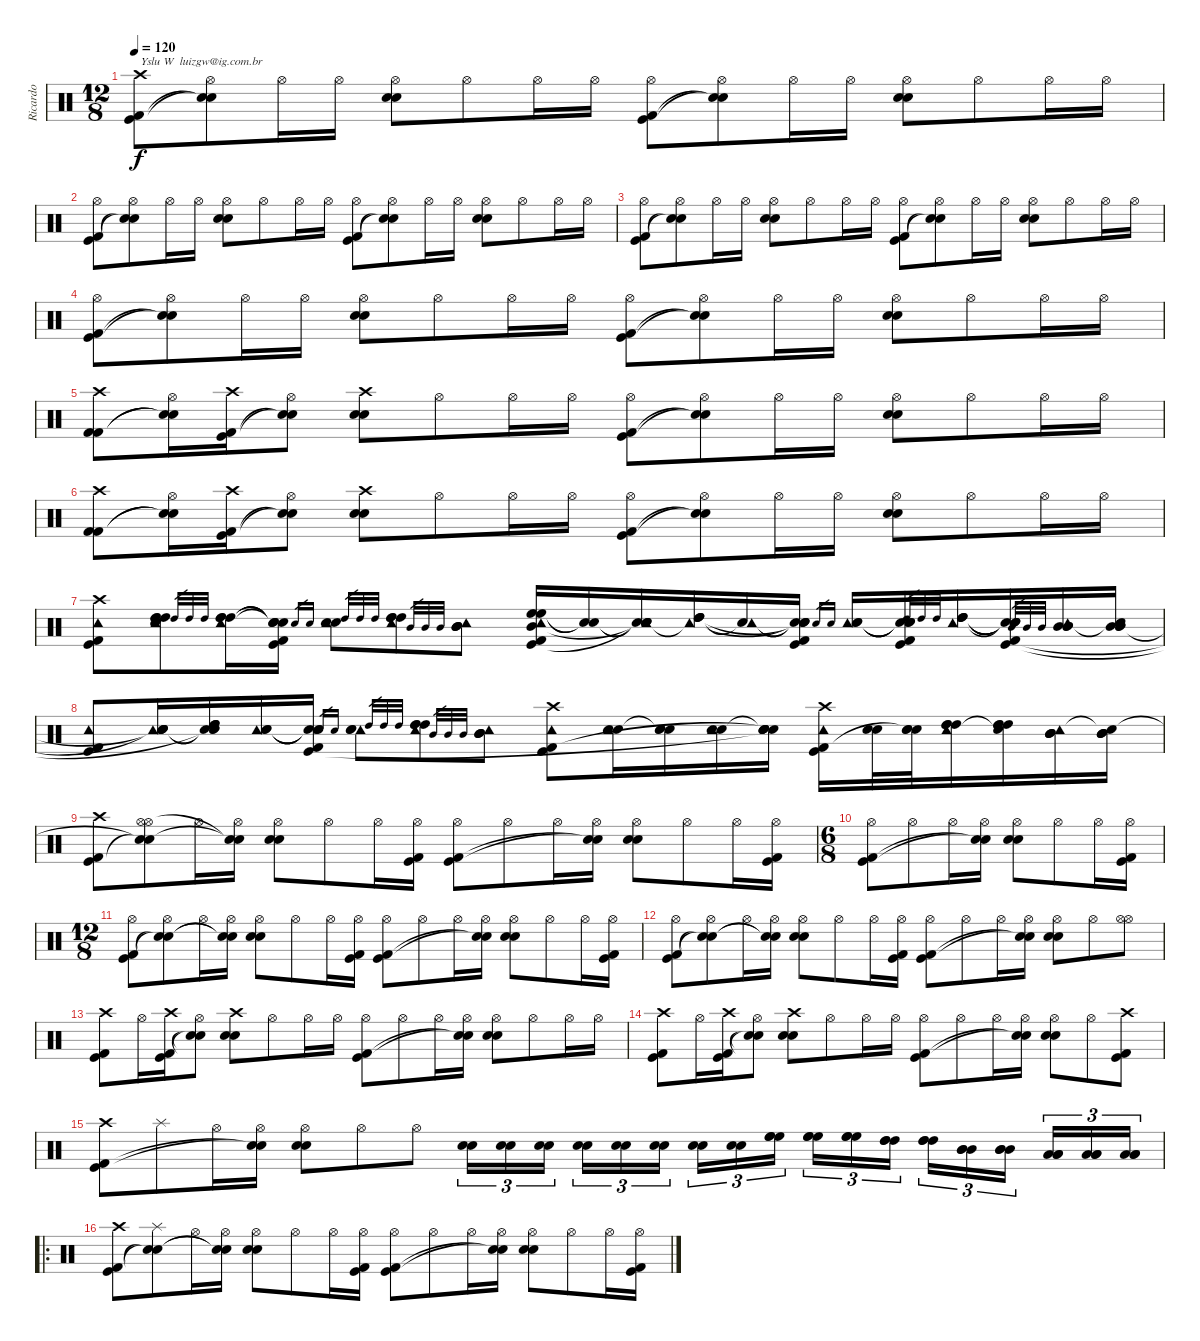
\track ("Ricardo" "Ricardo") {instrument percussion}
\staff {score}
\articulation defaults
\ts (12 8)
\tempo 120
\clef neutral
\ks c
("Crash high (hit)" "Kick (hit)" "Kick (hit) 2").8{txt "Yslu W  luizgw@ig.com.br" dy f} ("Hi-Hat (open)" "Snare (hit)"{t} "Snare (hit)"{t}).8 "Hi-Hat (open)".16 "Hi-Hat (open)".16 ("Hi-Hat (open)" "Electric Snare (hit)" "Snare (hit) 2").8 "Hi-Hat (open)".8 "Hi-Hat (open)".16 "Hi-Hat (open)".16 ("Hi-Hat (open)" "Kick (hit)" "Kick (hit) 2").8 ("Hi-Hat (open)" "Snare (hit)"{t} "Snare (hit)"{t}).8 "Hi-Hat (open)".16 "Hi-Hat (open)".16 ("Hi-Hat (open)" "Electric Snare (hit)" "Snare (hit) 2").8 "Hi-Hat (open)".8 "Hi-Hat (open)".16 "Hi-Hat (open)".16 |
("Hi-Hat (open)" "Kick (hit)" "Kick (hit) 2").8 ("Hi-Hat (open)" "Snare (hit)"{t} "Snare (hit)"{t}).8 "Hi-Hat (open)".16 "Hi-Hat (open)".16 ("Hi-Hat (open)" "Electric Snare (hit)" "Snare (hit) 2").8 "Hi-Hat (open)".8 "Hi-Hat (open)".16 "Hi-Hat (open)".16 ("Hi-Hat (open)" "Kick (hit)" "Kick (hit) 2").8 ("Hi-Hat (open)" "Snare (hit)"{t} "Snare (hit)"{t}).8 "Hi-Hat (open)".16 "Hi-Hat (open)".16 ("Hi-Hat (open)" "Electric Snare (hit)" "Snare (hit) 2").8 "Hi-Hat (open)".8 "Hi-Hat (open)".16 "Hi-Hat (open)".16 |
("Hi-Hat (open)" "Kick (hit)" "Kick (hit) 2").8 ("Hi-Hat (open)" "Snare (hit)"{t} "Snare (hit)"{t}).8 "Hi-Hat (open)".16 "Hi-Hat (open)".16 ("Hi-Hat (open)" "Electric Snare (hit)" "Snare (hit) 2").8 "Hi-Hat (open)".8 "Hi-Hat (open)".16 "Hi-Hat (open)".16 ("Hi-Hat (open)" "Kick (hit)" "Kick (hit) 2").8 ("Hi-Hat (open)" "Snare (hit)"{t} "Snare (hit)"{t}).8 "Hi-Hat (open)".16 "Hi-Hat (open)".16 ("Hi-Hat (open)" "Electric Snare (hit)" "Snare (hit) 2").8 "Hi-Hat (open)".8 "Hi-Hat (open)".16 "Hi-Hat (open)".16 |
("Hi-Hat (open)" "Kick (hit)" "Kick (hit) 2").8 ("Hi-Hat (open)" "Snare (hit)"{t} "Snare (hit)"{t}).8 "Hi-Hat (open)".16 "Hi-Hat (open)".16 ("Hi-Hat (open)" "Electric Snare (hit)" "Snare (hit) 2").8 "Hi-Hat (open)".8 "Hi-Hat (open)".16 "Hi-Hat (open)".16 ("Hi-Hat (open)" "Kick (hit)" "Kick (hit) 2").8 ("Hi-Hat (open)" "Snare (hit)"{t} "Snare (hit)"{t}).8 "Hi-Hat (open)".16 "Hi-Hat (open)".16 ("Hi-Hat (open)" "Electric Snare (hit)" "Snare (hit) 2").8 "Hi-Hat (open)".8 "Hi-Hat (open)".16 "Hi-Hat (open)".16 |
("Crash high (hit)" "Kick (hit) 2" "Kick (hit) 2").8 ("Hi-Hat (open)" "Snare (hit)"{t} "Snare (hit)"{t}).16 ("Crash high (hit)" "Kick (hit)" "Kick (hit) 2").16 ("Hi-Hat (open)" "Snare (hit)"{t} "Snare (hit)"{t}).8 ("Crash high (hit)" "Electric Snare (hit)" "Snare (hit) 2").8 "Hi-Hat (open)".8 "Hi-Hat (open)".16 "Hi-Hat (open)".16 ("Hi-Hat (open)" "Kick (hit)" "Kick (hit) 2").8 ("Hi-Hat (open)" "Snare (hit)"{t} "Snare (hit)"{t}).8 "Hi-Hat (open)".16 "Hi-Hat (open)".16 ("Hi-Hat (open)" "Electric Snare (hit)" "Snare (hit) 2").8 "Hi-Hat (open)".8 "Hi-Hat (open)".16 "Hi-Hat (open)".16 |
("Crash high (hit)" "Kick (hit) 2" "Kick (hit) 2").8 ("Hi-Hat (open)" "Snare (hit)"{t} "Snare (hit)"{t}).16 ("Crash high (hit)" "Kick (hit)" "Kick (hit) 2").16 ("Hi-Hat (open)" "Snare (hit)"{t} "Snare (hit)"{t}).8 ("Crash high (hit)" "Electric Snare (hit)" "Snare (hit) 2").8 "Hi-Hat (open)".8 "Hi-Hat (open)".16 "Hi-Hat (open)".16 ("Hi-Hat (open)" "Kick (hit)" "Kick (hit) 2").8 ("Hi-Hat (open)" "Snare (hit)"{t} "Snare (hit)"{t}).8 "Hi-Hat (open)".16 "Hi-Hat (open)".16 ("Hi-Hat (open)" "Electric Snare (hit)" "Snare (hit) 2").8 "Hi-Hat (open)".8 "Hi-Hat (open)".16 "Hi-Hat (open)".16 |
("Crash high (hit)" "Tambourine (hit)" "Kick (hit)" "Kick (hit) 2").8 ("Tambourine (hit)" "High Tom (hit)" "High Tom (hit)" "High Tom (hit)" "Snare (hit)" "Snare (hit)").8 "High Tom (hit)".32{gr} "High Tom (hit)".32{gr} "High Tom (hit)".32{gr} ("Tambourine (hit)" "High Tom (hit)" "High Tom (hit)" "High Tom (hit)").16 ("Snare (hit)"{t} "Snare (hit)"{t} "Snare (hit)"{t} "Snare (hit)"{t} "Kick (hit) 2" "Kick (hit)").16 "Electric Snare (hit)".16{gr} "Snare (hit) 2".16{gr} ("Electric Snare (hit)" "Snare (hit) 2" "Tambourine (hit)").8 "High Tom (hit)".32{gr} "High Tom (hit)".32{gr} "High Tom (hit)".32{gr} ("High Tom (hit)" "High Tom (hit)" "High Tom (hit)" "Tambourine (hit)").8 "Mid Tom (hit)".32{gr} "Mid Tom (hit)".32{gr} "Mid Tom (hit)".32{gr} ("Mid Tom (hit)" "Mid Tom (hit)" "Mid Tom (hit)" "Tambourine (hit)").8 ("High Floor Tom (hit)" "High Floor Tom (hit)" "Mid Tom (hit)" "Tambourine (hit)" "Kick (hit)" "Kick (hit) 2").16 ("Snare (hit)"{t} "Snare (hit)"{t}).16 ("Snare (hit)"{t} "Snare (hit)"{t} "Snare (hit)"{t} "Tambourine (hit)" "Snare (hit)"{t}).16 ("High Tom (hit)" "High Tom (hit)" "High Tom (hit)" "Tambourine (hit)"{t}).16 ("Snare (hit)"{t} "Tambourine (hit)").16 ("Snare (hit)"{t} "Snare (hit)"{t} "Snare (hit)"{t} "Snare (hit)"{t} "Kick (hit)" "Kick (hit) 2").16 "Electric Snare (hit)".16{gr} "Snare (hit) 2".16{gr} ("Tambourine (hit)" "Electric Snare (hit)" "Snare (hit) 2").16 ("Snare (hit)"{t} "Snare (hit)"{t} "Snare (hit)"{t} "Kick (hit)" "Kick (hit) 2").16 "High Tom (hit)".32{gr} "High Tom (hit)".32{gr} "High Tom (hit)".32{gr} ("Tambourine (hit)" "High Tom (hit)" "High Tom (hit)" "High Tom (hit)").16 ("Snare (hit)"{t} "Snare (hit)"{t} "Snare (hit)"{t} "Snare (hit)"{t} "Kick (hit) 2" "Kick (hit)").16 "Mid Tom (hit)".32{gr} "Mid Tom (hit)".32{gr} "Mid Tom (hit)".32{gr} ("Tambourine (hit)" "Mid Tom (hit)" "Mid Tom (hit)" "Mid Tom (hit)").16 ("Snare (hit)"{t} "Mid Tom (hit)" "Mid Tom (hit)" "Mid Tom (hit)").16 |
("Tambourine (hit)" "Kick (hit)" "Kick (hit) 2").8 ("Tambourine (hit)" "Electric Snare (hit)" "Snare (hit) 2" "Snare (hit)"{t} "Snare (hit)"{t}).16 ("Snare (hit)"{t} "High Tom (hit)" "High Tom (hit)" "High Tom (hit)" "Snare (hit)"{t} "Snare (hit)"{t}).16 ("Tambourine (hit)" "Electric Snare (hit)" "Snare (hit) 2").16 ("Snare (hit)"{t} "Snare (hit)"{t} "Snare (hit)"{t} "Kick (hit) 2" "Kick (hit)").16 "Electric Snare (hit)".16{gr} "Snare (hit) 2".16{gr} ("Tambourine (hit)" "Electric Snare (hit)" "Snare (hit) 2").8 "High Tom (hit)".32{gr} "High Tom (hit)".32{gr} "High Tom (hit)".32{gr} ("Tambourine (hit)" "High Tom (hit)" "High Tom (hit)" "High Tom (hit)").8 "Mid Tom (hit)".32{gr} "Mid Tom (hit)".32{gr} "Mid Tom (hit)".32{gr} ("Mid Tom (hit)" "Mid Tom (hit)" "Mid Tom (hit)" "Tambourine (hit)").8 ("Crash high (hit)" "Tambourine (hit)" "Kick (hit)" "Kick (hit) 2").8 ("Electric Snare (hit)" "Snare (hit) 2" "Tambourine (hit)").16 ("Electric Snare (hit)" "Snare (hit) 2" "Snare (hit)"{t}).16 ("Electric Snare (hit)" "Snare (hit) 2" "Tambourine (hit)").16 ("Electric Snare (hit)" "Snare (hit) 2" "Snare (hit)"{t} "Snare (hit)"{t} "Snare (hit)"{t}).16 ("Crash high (hit)" "Tambourine (hit)" "Kick (hit) 2" "Kick (hit)").16 ("Electric Snare (hit)" "Snare (hit) 2").32 ("Electric Snare (hit)" "Snare (hit) 2" "Snare (hit)"{t}).32 ("High Tom (hit)" "High Tom (hit)" "High Tom (hit)" "Tambourine (hit)").16 ("High Tom (hit)" "High Tom (hit)" "High Tom (hit)" "Snare (hit)"{t}).16 ("Mid Tom (hit)" "Mid Tom (hit)" "Mid Tom (hit)" "Tambourine (hit)").16 ("Mid Tom (hit)" "Mid Tom (hit)" "Mid Tom (hit)" "Snare (hit)"{t}).16 |
("Crash high (hit)" "Kick (hit) 2" "Kick (hit)").8 ("Hi-Hat (open)" "Hi-Hat (open)" "Snare (hit)"{t} "Snare (hit)"{t}).8 "Hi-Hat (open)".16 ("Hi-Hat (open)" "Snare (hit)"{t} "Snare (hit)"{t}).16 ("Hi-Hat (open)" "Electric Snare (hit)" "Snare (hit) 2").8 "Hi-Hat (open)".8 "Hi-Hat (open)".16 ("Hi-Hat (open)" "Kick (hit)" "Kick (hit) 2").16 ("Hi-Hat (open)" "Kick (hit) 2" "Kick (hit)").8 "Hi-Hat (open)".8 "Hi-Hat (open)".16 ("Hi-Hat (open)" "Snare (hit)"{t} "Snare (hit)"{t}).16 ("Hi-Hat (open)" "Electric Snare (hit)" "Snare (hit) 2").8 "Hi-Hat (open)".8 "Hi-Hat (open)".16 ("Hi-Hat (open)" "Kick (hit)" "Kick (hit) 2").16 |
\ts (6 8)
("Hi-Hat (open)" "Kick (hit)" "Kick (hit) 2").8 "Hi-Hat (open)".8 "Hi-Hat (open)".16 ("Hi-Hat (open)" "Snare (hit)"{t} "Snare (hit)"{t}).16 ("Hi-Hat (open)" "Electric Snare (hit)" "Snare (hit) 2").8 "Hi-Hat (open)".8 "Hi-Hat (open)".16 ("Hi-Hat (open)" "Kick (hit)" "Kick (hit) 2").16 |
\ts (12 8)
("Hi-Hat (open)" "Kick (hit) 2" "Kick (hit)").8 ("Hi-Hat (open)" "Snare (hit)"{t} "Snare (hit)"{t}).8 "Hi-Hat (open)".16 ("Hi-Hat (open)" "Snare (hit)"{t} "Snare (hit)"{t}).16 ("Hi-Hat (open)" "Electric Snare (hit)" "Snare (hit) 2").8 "Hi-Hat (open)".8 "Hi-Hat (open)".16 ("Hi-Hat (open)" "Kick (hit)" "Kick (hit) 2").16 ("Hi-Hat (open)" "Kick (hit) 2" "Kick (hit)").8 "Hi-Hat (open)".8 "Hi-Hat (open)".16 ("Hi-Hat (open)" "Snare (hit)"{t} "Snare (hit)"{t}).16 ("Hi-Hat (open)" "Electric Snare (hit)" "Snare (hit) 2").8 "Hi-Hat (open)".8 "Hi-Hat (open)".16 ("Hi-Hat (open)" "Kick (hit)" "Kick (hit) 2").16 |
("Hi-Hat (open)" "Kick (hit) 2" "Kick (hit)").8 ("Hi-Hat (open)" "Snare (hit)"{t} "Snare (hit)"{t}).8 "Hi-Hat (open)".16 ("Hi-Hat (open)" "Snare (hit)"{t} "Snare (hit)"{t}).16 ("Hi-Hat (open)" "Electric Snare (hit)" "Snare (hit) 2").8 "Hi-Hat (open)".8 "Hi-Hat (open)".16 ("Hi-Hat (open)" "Kick (hit)" "Kick (hit) 2").16 ("Hi-Hat (open)" "Kick (hit) 2" "Kick (hit)").8 "Hi-Hat (open)".8 "Hi-Hat (open)".16 ("Hi-Hat (open)" "Snare (hit)"{t} "Snare (hit)"{t}).16 ("Hi-Hat (open)" "Electric Snare (hit)" "Snare (hit) 2").8 "Hi-Hat (open)".8 ("Hi-Hat (open)" "Hi-Hat (open)").8 |
("Crash high (hit)" "Kick (hit)" "Kick (hit) 2").8 "Hi-Hat (open)".16 ("Crash high (hit)" "Kick (hit)" "Kick (hit) 2").16 ("Hi-Hat (open)" "Snare (hit)"{t} "Snare (hit)"{t}).8 ("Crash high (hit)" "Electric Snare (hit)" "Snare (hit) 2").8 "Hi-Hat (open)".8 "Hi-Hat (open)".16 "Hi-Hat (open)".16 ("Hi-Hat (open)" "Kick (hit)" "Kick (hit) 2").8 "Hi-Hat (open)".8 "Hi-Hat (open)".16 ("Hi-Hat (open)" "Snare (hit)"{t} "Snare (hit)"{t}).16 ("Hi-Hat (open)" "Electric Snare (hit)" "Snare (hit) 2").8 "Hi-Hat (open)".8 "Hi-Hat (open)".16 "Hi-Hat (open)".16 |
("Crash high (hit)" "Kick (hit)" "Kick (hit) 2").8 "Hi-Hat (open)".16 ("Crash high (hit)" "Kick (hit)" "Kick (hit) 2").16 ("Hi-Hat (open)" "Snare (hit)"{t} "Snare (hit)"{t}).8 ("Crash high (hit)" "Electric Snare (hit)" "Snare (hit) 2").8 "Hi-Hat (open)".8 "Hi-Hat (open)".16 "Hi-Hat (open)".16 ("Hi-Hat (open)" "Kick (hit)" "Kick (hit) 2").8 "Hi-Hat (open)".8 "Hi-Hat (open)".16 ("Hi-Hat (open)" "Snare (hit)"{t} "Snare (hit)"{t}).16 ("Hi-Hat (open)" "Electric Snare (hit)" "Snare (hit) 2").8 "Hi-Hat (open)".8 ("Crash high (hit)" "Kick (hit)" "Kick (hit) 2").8 |
("Crash high (hit)" "Kick (hit) 2" "Kick (hit)").8 "Splash (hit)".8 "Hi-Hat (open)".16 ("Hi-Hat (open)" "Snare (hit)"{t} "Snare (hit)"{t}).16 ("Hi-Hat (open)" "Electric Snare (hit)" "Snare (hit) 2").8 "Hi-Hat (open)".8 "Hi-Hat (open)".8 ("Electric Snare (hit)" "Snare (hit) 2").16{tu (3 2)} ("Electric Snare (hit)" "Snare (hit) 2").16{tu (3 2)} ("Electric Snare (hit)" "Snare (hit) 2").16{tu (3 2)} ("Electric Snare (hit)" "Snare (hit) 2").16{tu (3 2)} ("Electric Snare (hit)" "Snare (hit) 2").16{tu (3 2)} ("Electric Snare (hit)" "Snare (hit) 2").16{tu (3 2)} ("Snare (hit) 2" "Snare (hit) 2").16{tu (3 2)} ("Snare (hit) 2" "Snare (hit) 2").16{tu (3 2)} ("High Floor Tom (hit)" "High Floor Tom (hit)" "High Floor Tom (hit)").16{tu (3 2)} ("High Floor Tom (hit)" "High Floor Tom (hit)" "High Floor Tom (hit)").16{tu (3 2)} ("High Floor Tom (hit)" "High Floor Tom (hit)" "High Floor Tom (hit)").16{tu (3 2)} ("High Tom (hit)" "High Tom (hit)" "High Tom (hit)").16{tu (3 2)} ("High Tom (hit)" "High Tom (hit)" "High Tom (hit)").16{tu (3 2)} ("Mid Tom (hit)" "Mid Tom (hit)" "Mid Tom (hit)").16{tu (3 2)} ("Mid Tom (hit)" "Mid Tom (hit)" "Mid Tom (hit)").16{tu (3 2)} ("Low Tom (hit)" "Low Tom (hit)" "Low Tom (hit)").16{tu (3 2)} ("Low Tom (hit)" "Low Tom (hit)" "Low Tom (hit)").16{tu (3 2)} ("Low Tom (hit)" "Low Tom (hit)" "Low Tom (hit)").16{tu (3 2)} |
\ro
("Crash high (hit)" "Kick (hit) 2" "Kick (hit)").8 ("Splash (hit)" "Snare (hit)"{t} "Snare (hit)"{t}).8 "Hi-Hat (open)".16 ("Hi-Hat (open)" "Snare (hit)"{t} "Snare (hit)"{t}).16 ("Hi-Hat (open)" "Electric Snare (hit)" "Snare (hit) 2").8 "Hi-Hat (open)".8 "Hi-Hat (open)".16 ("Hi-Hat (open)" "Kick (hit)" "Kick (hit) 2").16 ("Hi-Hat (open)" "Kick (hit) 2" "Kick (hit)").8 "Hi-Hat (open)".8 "Hi-Hat (open)".16 ("Hi-Hat (open)" "Snare (hit)"{t} "Snare (hit)"{t}).16 ("Hi-Hat (open)" "Electric Snare (hit)" "Snare (hit) 2").8 "Hi-Hat (open)".8 "Hi-Hat (open)".16 ("Hi-Hat (open)" "Kick (hit)" "Kick (hit) 2").16
